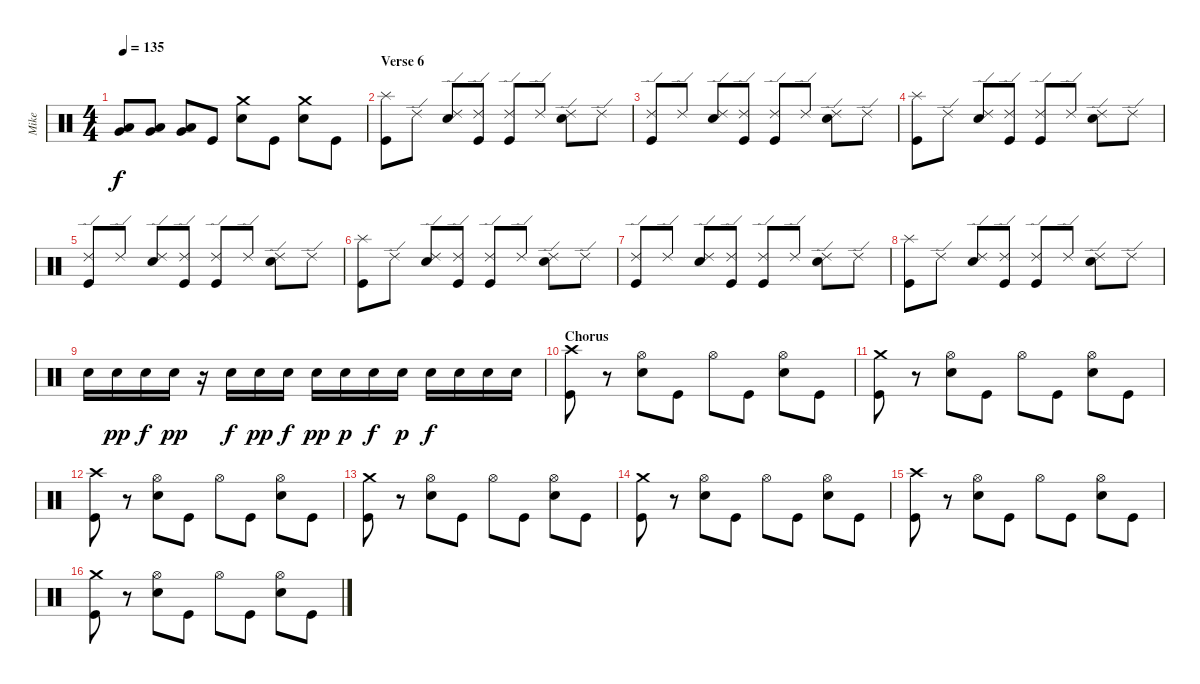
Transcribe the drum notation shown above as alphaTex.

\track ("Mike" "Mike") {instrument percussion}
\staff {score}
\articulation defaults
\ts (4 4)
\tempo 135
\clef neutral
\ks c
("Very Low Tom (hit)" "Low Tom (hit)").8{dy f} ("Very Low Tom (hit)" "Low Tom (hit)").8 ("Very Low Tom (hit)" "Low Tom (hit)").8 "Kick (hit)".8 ("Crash medium (hit)" "Electric Snare (hit)").8 "Kick (hit)".8 ("Crash medium (hit)" "Electric Snare (hit)").8 "Kick (hit)".8 |
\section ("" "Verse 6")
("Splash (hit)" "Kick (hit)").8 "Ride (edge) 2".8 ("Ride (edge) 2" "Electric Snare (hit)").8 ("Ride (edge) 2" "Kick (hit)").8 ("Ride (edge) 2" "Kick (hit)").8 "Ride (edge) 2".8 ("Ride (edge) 2" "Electric Snare (hit)").8 "Ride (edge) 2".8 |
("Ride (edge) 2" "Kick (hit)").8 "Ride (edge) 2".8 ("Ride (edge) 2" "Electric Snare (hit)").8 ("Ride (edge) 2" "Kick (hit)").8 ("Ride (edge) 2" "Kick (hit)").8 "Ride (edge) 2".8 ("Ride (edge) 2" "Electric Snare (hit)").8 "Ride (edge) 2".8 |
("Splash (hit)" "Kick (hit)").8 "Ride (edge) 2".8 ("Ride (edge) 2" "Electric Snare (hit)").8 ("Ride (edge) 2" "Kick (hit)").8 ("Ride (edge) 2" "Kick (hit)").8 "Ride (edge) 2".8 ("Ride (edge) 2" "Electric Snare (hit)").8 "Ride (edge) 2".8 |
("Ride (edge) 2" "Kick (hit)").8 "Ride (edge) 2".8 ("Ride (edge) 2" "Electric Snare (hit)").8 ("Ride (edge) 2" "Kick (hit)").8 ("Ride (edge) 2" "Kick (hit)").8 "Ride (edge) 2".8 ("Ride (edge) 2" "Electric Snare (hit)").8 "Ride (edge) 2".8 |
("Splash (hit)" "Kick (hit)").8 "Ride (edge) 2".8 ("Ride (edge) 2" "Electric Snare (hit)").8 ("Ride (edge) 2" "Kick (hit)").8 ("Ride (edge) 2" "Kick (hit)").8 "Ride (edge) 2".8 ("Ride (edge) 2" "Electric Snare (hit)").8 "Ride (edge) 2".8 |
("Ride (edge) 2" "Kick (hit)").8 "Ride (edge) 2".8 ("Ride (edge) 2" "Electric Snare (hit)").8 ("Ride (edge) 2" "Kick (hit)").8 ("Ride (edge) 2" "Kick (hit)").8 "Ride (edge) 2".8 ("Ride (edge) 2" "Electric Snare (hit)").8 "Ride (edge) 2".8 |
("Splash (hit)" "Kick (hit)").8 "Ride (edge) 2".8 ("Ride (edge) 2" "Electric Snare (hit)").8 ("Ride (edge) 2" "Kick (hit)").8 ("Ride (edge) 2" "Kick (hit)").8 "Ride (edge) 2".8 ("Ride (edge) 2" "Electric Snare (hit)").8 "Ride (edge) 2".8 |
"Electric Snare (hit)".16 "Electric Snare (hit)".16{dy pp} "Electric Snare (hit)".16{dy f} "Electric Snare (hit)".16{dy pp} r.16 "Electric Snare (hit)".16{dy f} "Electric Snare (hit)".16{dy pp} "Electric Snare (hit)".16{dy f} "Electric Snare (hit)".16{dy pp} "Electric Snare (hit)".16{dy p} "Electric Snare (hit)".16{dy f} "Electric Snare (hit)".16{dy p} "Electric Snare (hit)".16{dy f} "Electric Snare (hit)".16 "Electric Snare (hit)".16 "Electric Snare (hit)".16 |
\section ("" "Chorus")
("Crash high (hit)" "Kick (hit)").8 r.8 ("Electric Snare (hit)" "Hi-Hat (open)").8 "Kick (hit)".8 "Hi-Hat (open)".8 "Kick (hit)".8 ("Electric Snare (hit)" "Hi-Hat (open)").8 "Kick (hit)".8 |
("Crash medium (hit)" "Kick (hit)").8 r.8 ("Electric Snare (hit)" "Hi-Hat (open)").8 "Kick (hit)".8 "Hi-Hat (open)".8 "Kick (hit)".8 ("Electric Snare (hit)" "Hi-Hat (open)").8 "Kick (hit)".8 |
("Crash high (hit)" "Kick (hit)").8 r.8 ("Electric Snare (hit)" "Hi-Hat (open)").8 "Kick (hit)".8 "Hi-Hat (open)".8 "Kick (hit)".8 ("Electric Snare (hit)" "Hi-Hat (open)").8 "Kick (hit)".8 |
("Crash medium (hit)" "Kick (hit)").8 r.8 ("Electric Snare (hit)" "Hi-Hat (open)").8 "Kick (hit)".8 "Hi-Hat (open)".8 "Kick (hit)".8 ("Electric Snare (hit)" "Hi-Hat (open)").8 "Kick (hit)".8 |
("Crash medium (hit)" "Kick (hit)").8 r.8 ("Electric Snare (hit)" "Hi-Hat (open)").8 "Kick (hit)".8 "Hi-Hat (open)".8 "Kick (hit)".8 ("Electric Snare (hit)" "Hi-Hat (open)").8 "Kick (hit)".8 |
("Crash high (hit)" "Kick (hit)").8 r.8 ("Electric Snare (hit)" "Hi-Hat (open)").8 "Kick (hit)".8 "Hi-Hat (open)".8 "Kick (hit)".8 ("Electric Snare (hit)" "Hi-Hat (open)").8 "Kick (hit)".8 |
("Crash medium (hit)" "Kick (hit)").8 r.8 ("Electric Snare (hit)" "Hi-Hat (open)").8 "Kick (hit)".8 "Hi-Hat (open)".8 "Kick (hit)".8 ("Electric Snare (hit)" "Hi-Hat (open)").8 "Kick (hit)".8
